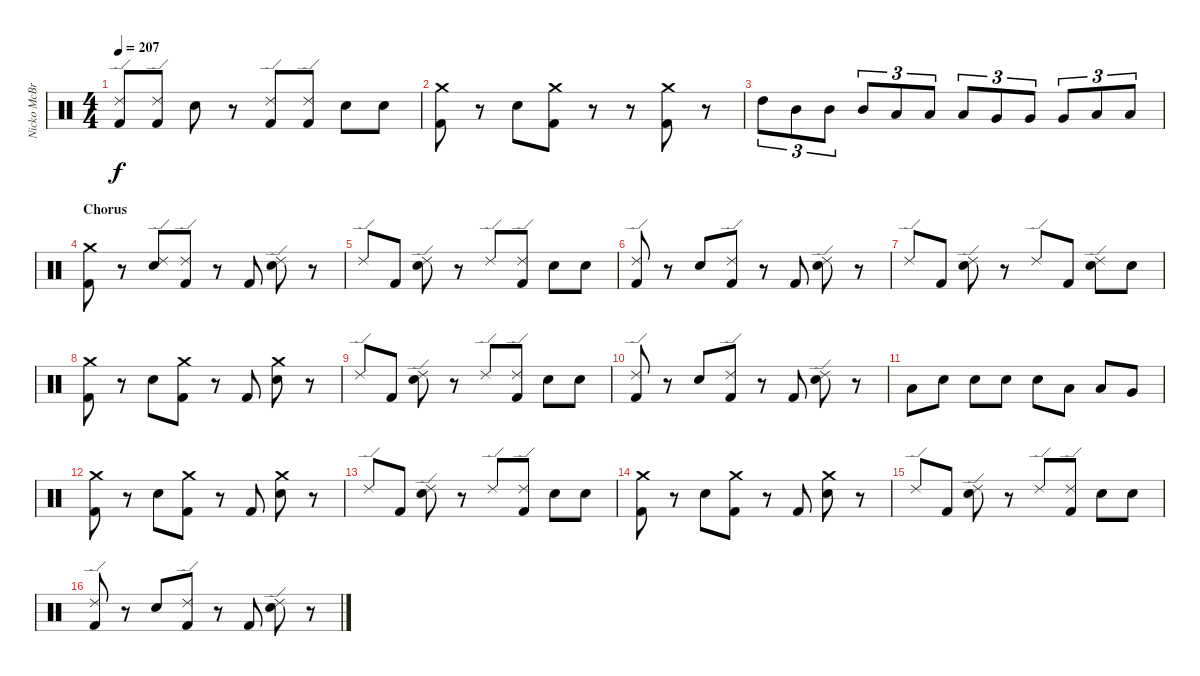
\track ("Nicko McBrain" "Nicko McBr") {instrument percussion}
\staff {score}
\articulation defaults
\ts (4 4)
\tempo 207
\clef neutral
\ks c
("Ride (edge) 2" "Kick (hit) 2").8{dy f} ("Ride (edge) 2" "Kick (hit) 2").8 "Snare (hit) 2".8 r.8 ("Ride (edge) 2" "Kick (hit) 2").8 ("Ride (edge) 2" "Kick (hit) 2").8 "Snare (hit) 2".8 "Snare (hit) 2".8 |
("Crash medium (hit)" "Kick (hit) 2").8 r.8 "Snare (hit) 2".8 ("Crash medium (hit)" "Kick (hit) 2").8 r.8 r.8 ("Crash medium (hit)" "Kick (hit) 2").8 r.8 |
"High Tom (hit)".8{tu (3 2)} "Mid Tom (hit)".8{tu (3 2)} "Mid Tom (hit)".8{tu (3 2)} "Mid Tom (hit)".8{tu (3 2)} "Low Tom (hit)".8{tu (3 2)} "Low Tom (hit)".8{tu (3 2)} "Low Tom (hit)".8{tu (3 2)} "Very Low Tom (hit)".8{tu (3 2)} "Very Low Tom (hit)".8{tu (3 2)} "Very Low Tom (hit)".8{tu (3 2)} "Low Floor Tom (hit)".8{tu (3 2)} "Low Floor Tom (hit)".8{tu (3 2)} |
\section ("" "Chorus")
("Crash medium (hit)" "Kick (hit) 2").8 r.8 ("Ride (edge) 2" "Snare (hit) 2").8 ("Ride (edge) 2" "Kick (hit) 2").8 r.8 "Kick (hit) 2".8 ("Ride (edge) 2" "Snare (hit) 2").8 r.8 |
"Ride (edge) 2".8 "Kick (hit) 2".8 ("Ride (edge) 2" "Snare (hit) 2").8 r.8 "Ride (edge) 2".8 ("Ride (edge) 2" "Kick (hit) 2").8 "Snare (hit) 2".8 "Snare (hit) 2".8 |
("Ride (edge) 2" "Kick (hit) 2").8 r.8 "Snare (hit) 2".8 ("Ride (edge) 2" "Kick (hit) 2").8 r.8 "Kick (hit) 2".8 ("Ride (edge) 2" "Snare (hit) 2").8 r.8 |
"Ride (edge) 2".8 "Kick (hit) 2".8 ("Ride (edge) 2" "Snare (hit) 2").8 r.8 "Ride (edge) 2".8 "Kick (hit) 2".8 ("Ride (edge) 2" "Snare (hit) 2").8 "Snare (hit) 2".8 |
("Crash medium (hit)" "Kick (hit) 2").8 r.8 "Snare (hit) 2".8 ("Crash medium (hit)" "Kick (hit) 2").8 r.8 "Kick (hit) 2".8 ("Crash medium (hit)" "Snare (hit) 2").8 r.8 |
"Ride (edge) 2".8 "Kick (hit) 2".8 ("Ride (edge) 2" "Snare (hit) 2").8 r.8 "Ride (edge) 2".8 ("Ride (edge) 2" "Kick (hit) 2").8 "Snare (hit) 2".8 "Snare (hit) 2".8 |
("Ride (edge) 2" "Kick (hit) 2").8 r.8 "Snare (hit) 2".8 ("Ride (edge) 2" "Kick (hit) 2").8 r.8 "Kick (hit) 2".8 ("Ride (edge) 2" "Snare (hit) 2").8 r.8 |
"Low Tom (hit)".8 "Snare (hit) 2".8 "Snare (hit) 2".8 "Snare (hit) 2".8 "Snare (hit) 2".8 "Low Tom (hit)".8 "Low Tom (hit)".8 "Very Low Tom (hit)".8 |
("Crash medium (hit)" "Kick (hit) 2").8 r.8 "Snare (hit) 2".8 ("Crash medium (hit)" "Kick (hit) 2").8 r.8 "Kick (hit) 2".8 ("Crash medium (hit)" "Snare (hit) 2").8 r.8 |
"Ride (edge) 2".8 "Kick (hit) 2".8 ("Ride (edge) 2" "Snare (hit) 2").8 r.8 "Ride (edge) 2".8 ("Ride (edge) 2" "Kick (hit) 2").8 "Snare (hit) 2".8 "Snare (hit) 2".8 |
("Crash medium (hit)" "Kick (hit) 2").8 r.8 "Snare (hit) 2".8 ("Crash medium (hit)" "Kick (hit) 2").8 r.8 "Kick (hit) 2".8 ("Crash medium (hit)" "Snare (hit) 2").8 r.8 |
"Ride (edge) 2".8 "Kick (hit) 2".8 ("Ride (edge) 2" "Snare (hit) 2").8 r.8 "Ride (edge) 2".8 ("Ride (edge) 2" "Kick (hit) 2").8 "Snare (hit) 2".8 "Snare (hit) 2".8 |
("Ride (edge) 2" "Kick (hit) 2").8 r.8 "Snare (hit) 2".8 ("Ride (edge) 2" "Kick (hit) 2").8 r.8 "Kick (hit) 2".8 ("Ride (edge) 2" "Snare (hit) 2").8 r.8
